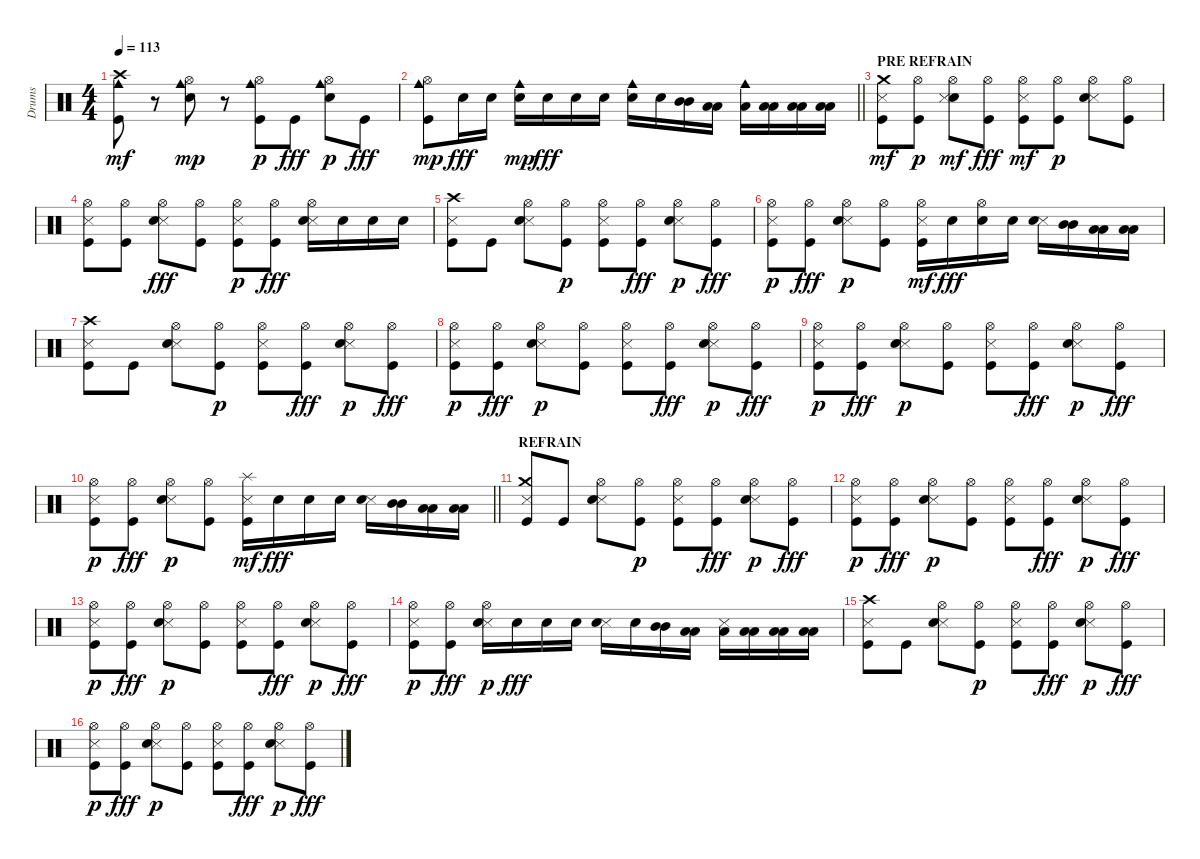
\track ("Drums" "Drums") {instrument percussion}
\staff {score}
\articulation defaults
\ts (4 4)
\tempo 113
\clef neutral
\ks c
("Crash high (hit)" "Kick (hit)" "Cowbell medium (hit)").8{dy mf} r.8 ("Electric Snare (hit)" "Hi-Hat (open)" "Cowbell medium (hit)").8{dy mp} r.8 ("Cowbell medium (hit)" "Kick (hit)" "Hi-Hat (open)").8{dy p} "Kick (hit)".8{dy fff} ("Electric Snare (hit)" "Cowbell medium (hit)" "Hi-Hat (open)").8{dy p} "Kick (hit)".8{dy fff} |
\barLineRight lightlight
("Hi-Hat (open)" "Kick (hit)" "Cowbell medium (hit)").8{dy mp} "Electric Snare (hit)".16{dy fff} "Electric Snare (hit)".16 ("Electric Snare (hit)" "Cowbell medium (hit)").16{dy mp} "Electric Snare (hit)".16{dy fff} "Electric Snare (hit)".16 "Electric Snare (hit)".16 ("Cowbell medium (hit)" "Electric Snare (hit)").16 "Electric Snare (hit)".16 ("Mid Tom (hit)" "Mid Tom (hit)").16 ("Low Tom (hit)" "Low Tom (hit)").16 ("Cowbell medium (hit)" "Low Tom (hit)").16 ("Low Floor Tom (hit)" "Low Floor Tom (hit)").16 ("Low Floor Tom (hit)" "Low Floor Tom (hit)").16 ("Low Floor Tom (hit)" "Low Floor Tom (hit)").16 |
\section ("" "PRE REFRAIN")
("Crash medium (hit)" "Kick (hit)" "Snare (side stick) 3").8{dy mf} ("Kick (hit)" "Hi-Hat (open)").8{dy p} ("Electric Snare (hit)" "Hi-Hat (open)" "Snare (side stick) 3").8{dy mf} ("Hi-Hat (open)" "Kick (hit)").8{dy fff} ("Kick (hit)" "Hi-Hat (open)" "Snare (side stick) 3").8{dy mf} ("Kick (hit)" "Hi-Hat (open)").8{dy p} ("Snare (side stick) 3" "Electric Snare (hit)" "Hi-Hat (open)").8 ("Kick (hit)" "Hi-Hat (open)").8 |
("Snare (side stick) 3" "Kick (hit)" "Hi-Hat (open)").8 ("Kick (hit)" "Hi-Hat (open)").8 ("Snare (side stick) 3" "Hi-Hat (open)" "Electric Snare (hit)").8{dy fff} ("Hi-Hat (open)" "Kick (hit)").8 ("Kick (hit)" "Snare (side stick) 3" "Hi-Hat (open)").8{dy p} ("Hi-Hat (open)" "Kick (hit)").8{dy fff} ("Snare (side stick) 3" "Hi-Hat (open)" "Electric Snare (hit)").16 "Electric Snare (hit)".16 "Electric Snare (hit)".16 "Electric Snare (hit)".16 |
("Snare (side stick) 3" "Crash high (hit)" "Kick (hit)").8 "Kick (hit)".8 ("Snare (side stick) 3" "Hi-Hat (open)" "Electric Snare (hit)").8 ("Kick (hit)" "Hi-Hat (open)").8{dy p} ("Snare (side stick) 3" "Kick (hit)" "Hi-Hat (open)").8 ("Hi-Hat (open)" "Kick (hit)").8{dy fff} ("Snare (side stick) 3" "Electric Snare (hit)" "Hi-Hat (open)").8{dy p} ("Hi-Hat (open)" "Kick (hit)").8{dy fff} |
("Snare (side stick) 3" "Kick (hit)" "Hi-Hat (open)").8{dy p} ("Hi-Hat (open)" "Kick (hit)").8{dy fff} ("Snare (side stick) 3" "Electric Snare (hit)" "Hi-Hat (open)").8{dy p} ("Kick (hit)" "Hi-Hat (open)").8 ("Kick (hit)" "Hi-Hat (open)" "Snare (side stick) 3").16{dy mf} "Electric Snare (hit)".16{dy fff} ("Hi-Hat (open)" "Electric Snare (hit)").16 "Electric Snare (hit)".16 ("Snare (side stick) 3" "Electric Snare (hit)").16 ("Mid Tom (hit)" "Mid Tom (hit)").16 ("Low Tom (hit)" "Low Tom (hit)").16 ("Low Tom (hit)" "Low Tom (hit)").16 |
("Snare (side stick) 3" "Crash high (hit)" "Kick (hit)").8 "Kick (hit)".8 ("Snare (side stick) 3" "Hi-Hat (open)" "Electric Snare (hit)").8 ("Kick (hit)" "Hi-Hat (open)").8{dy p} ("Snare (side stick) 3" "Kick (hit)" "Hi-Hat (open)").8 ("Hi-Hat (open)" "Kick (hit)").8{dy fff} ("Snare (side stick) 3" "Electric Snare (hit)" "Hi-Hat (open)").8{dy p} ("Hi-Hat (open)" "Kick (hit)").8{dy fff} |
("Snare (side stick) 3" "Kick (hit)" "Hi-Hat (open)").8{dy p} ("Hi-Hat (open)" "Kick (hit)").8{dy fff} ("Snare (side stick) 3" "Electric Snare (hit)" "Hi-Hat (open)").8{dy p} ("Kick (hit)" "Hi-Hat (open)").8 ("Snare (side stick) 3" "Kick (hit)" "Hi-Hat (open)").8 ("Hi-Hat (open)" "Kick (hit)").8{dy fff} ("Snare (side stick) 3" "Electric Snare (hit)" "Hi-Hat (open)").8{dy p} ("Hi-Hat (open)" "Kick (hit)").8{dy fff} |
("Snare (side stick) 3" "Kick (hit)" "Hi-Hat (open)").8{dy p} ("Hi-Hat (open)" "Kick (hit)").8{dy fff} ("Snare (side stick) 3" "Electric Snare (hit)" "Hi-Hat (open)").8{dy p} ("Kick (hit)" "Hi-Hat (open)").8 ("Snare (side stick) 3" "Kick (hit)" "Hi-Hat (open)").8 ("Hi-Hat (open)" "Kick (hit)").8{dy fff} ("Snare (side stick) 3" "Electric Snare (hit)" "Hi-Hat (open)").8{dy p} ("Hi-Hat (open)" "Kick (hit)").8{dy fff} |
\barLineRight lightlight
("Snare (side stick) 3" "Kick (hit)" "Hi-Hat (open)").8{dy p} ("Hi-Hat (open)" "Kick (hit)").8{dy fff} ("Snare (side stick) 3" "Electric Snare (hit)" "Hi-Hat (open)").8{dy p} ("Kick (hit)" "Hi-Hat (open)").8 ("Splash (hit)" "Kick (hit)" "Snare (side stick) 3").16{dy mf} "Electric Snare (hit)".16{dy fff} "Electric Snare (hit)".16 "Electric Snare (hit)".16 ("Snare (side stick) 3" "Electric Snare (hit)").16 ("Mid Tom (hit)" "Mid Tom (hit)").16 ("Low Tom (hit)" "Low Tom (hit)").16 ("Low Tom (hit)" "Low Tom (hit)").16 |
\section ("" "REFRAIN")
("Snare (side stick) 3" "Crash medium (hit)" "Kick (hit)").8 "Kick (hit)".8 ("Snare (side stick) 3" "Hi-Hat (open)" "Electric Snare (hit)").8 ("Kick (hit)" "Hi-Hat (open)").8{dy p} ("Snare (side stick) 3" "Kick (hit)" "Hi-Hat (open)").8 ("Hi-Hat (open)" "Kick (hit)").8{dy fff} ("Snare (side stick) 3" "Electric Snare (hit)" "Hi-Hat (open)").8{dy p} ("Hi-Hat (open)" "Kick (hit)").8{dy fff} |
("Snare (side stick) 3" "Kick (hit)" "Hi-Hat (open)").8{dy p} ("Hi-Hat (open)" "Kick (hit)").8{dy fff} ("Snare (side stick) 3" "Electric Snare (hit)" "Hi-Hat (open)").8{dy p} ("Kick (hit)" "Hi-Hat (open)").8 ("Snare (side stick) 3" "Kick (hit)" "Hi-Hat (open)").8 ("Hi-Hat (open)" "Kick (hit)").8{dy fff} ("Snare (side stick) 3" "Electric Snare (hit)" "Hi-Hat (open)").8{dy p} ("Hi-Hat (open)" "Kick (hit)").8{dy fff} |
("Snare (side stick) 3" "Kick (hit)" "Hi-Hat (open)").8{dy p} ("Hi-Hat (open)" "Kick (hit)").8{dy fff} ("Snare (side stick) 3" "Electric Snare (hit)" "Hi-Hat (open)").8{dy p} ("Kick (hit)" "Hi-Hat (open)").8 ("Snare (side stick) 3" "Kick (hit)" "Hi-Hat (open)").8 ("Hi-Hat (open)" "Kick (hit)").8{dy fff} ("Snare (side stick) 3" "Electric Snare (hit)" "Hi-Hat (open)").8{dy p} ("Hi-Hat (open)" "Kick (hit)").8{dy fff} |
("Snare (side stick) 3" "Kick (hit)" "Hi-Hat (open)").8{dy p} ("Hi-Hat (open)" "Kick (hit)").8{dy fff} ("Snare (side stick) 3" "Electric Snare (hit)" "Hi-Hat (open)").16{dy p} "Electric Snare (hit)".16{dy fff} "Electric Snare (hit)".16 "Electric Snare (hit)".16 ("Snare (side stick) 3" "Electric Snare (hit)").16 "Electric Snare (hit)".16 ("Mid Tom (hit)" "Mid Tom (hit)").16 ("Low Tom (hit)" "Low Tom (hit)").16 ("Snare (side stick) 3" "Low Tom (hit)").16 ("Low Floor Tom (hit)" "Low Floor Tom (hit)").16 ("Low Floor Tom (hit)" "Low Floor Tom (hit)").16 ("Low Floor Tom (hit)" "Low Floor Tom (hit)").16 |
("Snare (side stick) 3" "Crash high (hit)" "Kick (hit)").8 "Kick (hit)".8 ("Snare (side stick) 3" "Hi-Hat (open)" "Electric Snare (hit)").8 ("Kick (hit)" "Hi-Hat (open)").8{dy p} ("Snare (side stick) 3" "Kick (hit)" "Hi-Hat (open)").8 ("Hi-Hat (open)" "Kick (hit)").8{dy fff} ("Snare (side stick) 3" "Electric Snare (hit)" "Hi-Hat (open)").8{dy p} ("Hi-Hat (open)" "Kick (hit)").8{dy fff} |
("Snare (side stick) 3" "Kick (hit)" "Hi-Hat (open)").8{dy p} ("Hi-Hat (open)" "Kick (hit)").8{dy fff} ("Snare (side stick) 3" "Electric Snare (hit)" "Hi-Hat (open)").8{dy p} ("Kick (hit)" "Hi-Hat (open)").8 ("Snare (side stick) 3" "Kick (hit)" "Hi-Hat (open)").8 ("Hi-Hat (open)" "Kick (hit)").8{dy fff} ("Snare (side stick) 3" "Electric Snare (hit)" "Hi-Hat (open)").8{dy p} ("Hi-Hat (open)" "Kick (hit)").8{dy fff}
